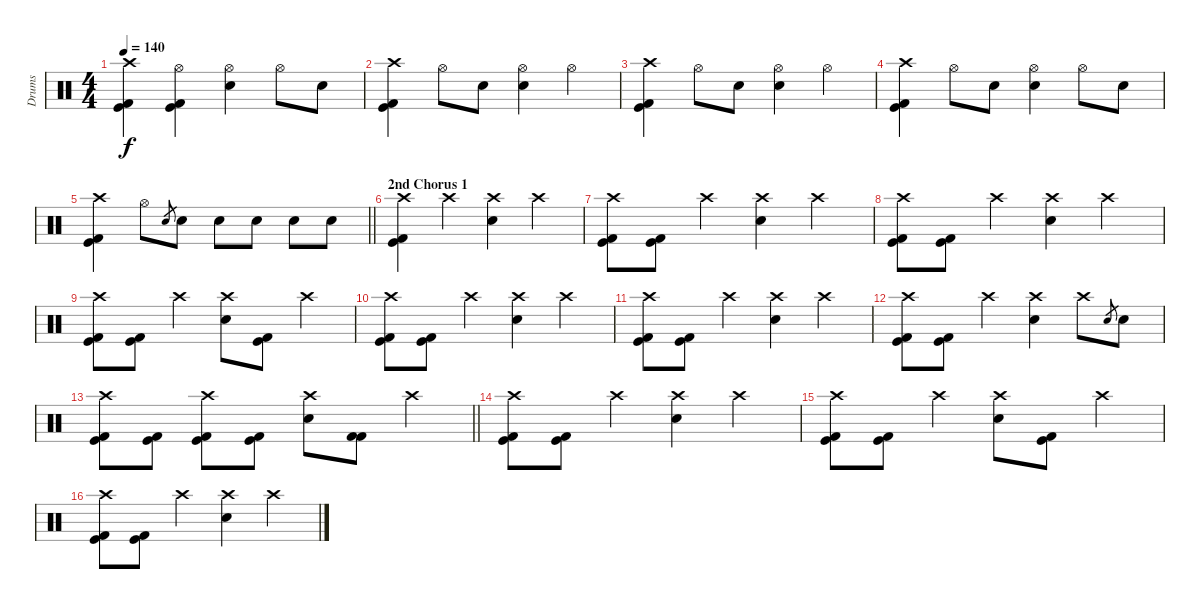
\track ("Drums" "Drums") {instrument percussion}
\staff {score}
\articulation defaults
\ts (4 4)
\tempo 140
\clef neutral
\ks c
("Crash high (hit)" "Kick (hit)" "Kick (hit) 2").4{dy f} ("Hi-Hat (open)" "Kick (hit) 2" "Kick (hit)").4 ("Hi-Hat (open)" "Snare (hit) 2").4 "Hi-Hat (open)".8 "Snare (hit) 2".8 |
("Kick (hit) 2" "Kick (hit)" "Crash high (hit)").4 "Hi-Hat (open)".8 "Snare (hit) 2".8 ("Snare (hit) 2" "Hi-Hat (open)").4 "Hi-Hat (open)".4 |
("Kick (hit) 2" "Kick (hit)" "Crash high (hit)").4 "Hi-Hat (open)".8 "Snare (hit) 2".8 ("Snare (hit) 2" "Hi-Hat (open)").4 "Hi-Hat (open)".4 |
("Kick (hit) 2" "Kick (hit)" "Crash high (hit)").4 "Hi-Hat (open)".8 "Snare (hit) 2".8 ("Snare (hit) 2" "Hi-Hat (open)").4 "Hi-Hat (open)".8 "Snare (hit) 2".8 |
\barLineRight lightlight
("Kick (hit) 2" "Kick (hit)" "Crash high (hit)").4 "Hi-Hat (open)".8 "Snare (hit) 2".8{gr} "Snare (hit) 2".8 "Snare (hit) 2".8 "Snare (hit) 2".8 "Snare (hit) 2".8 "Snare (hit) 2".8 |
\section ("" "2nd Chorus 1")
("Kick (hit)" "Kick (hit) 2" "Crash high (hit)").4 "Crash high (hit)".4 ("Snare (hit) 2" "Crash high (hit)").4 "Crash high (hit)".4 |
("Kick (hit)" "Kick (hit) 2" "Crash high (hit)").8 ("Kick (hit) 2" "Kick (hit)").8 "Crash high (hit)".4 ("Snare (hit) 2" "Crash high (hit)").4 "Crash high (hit)".4 |
("Kick (hit)" "Kick (hit) 2" "Crash high (hit)").8 ("Kick (hit) 2" "Kick (hit)").8 "Crash high (hit)".4 ("Snare (hit) 2" "Crash high (hit)").4 "Crash high (hit)".4 |
("Kick (hit)" "Kick (hit) 2" "Crash high (hit)").8 ("Kick (hit) 2" "Kick (hit)").8 "Crash high (hit)".4 ("Snare (hit) 2" "Crash high (hit)").8 ("Kick (hit) 2" "Kick (hit)").8 "Crash high (hit)".4 |
("Kick (hit)" "Kick (hit) 2" "Crash high (hit)").8 ("Kick (hit) 2" "Kick (hit)").8 "Crash high (hit)".4 ("Snare (hit) 2" "Crash high (hit)").4 "Crash high (hit)".4 |
("Kick (hit)" "Kick (hit) 2" "Crash high (hit)").8 ("Kick (hit) 2" "Kick (hit)").8 "Crash high (hit)".4 ("Snare (hit) 2" "Crash high (hit)").4 "Crash high (hit)".4 |
("Kick (hit)" "Kick (hit) 2" "Crash high (hit)").8 ("Kick (hit) 2" "Kick (hit)").8 "Crash high (hit)".4 ("Snare (hit) 2" "Crash high (hit)").4 "Crash high (hit)".8 "Snare (hit) 2".8{gr} "Snare (hit) 2".8 |
\barLineRight lightlight
("Kick (hit)" "Kick (hit) 2" "Crash high (hit)").8 ("Kick (hit) 2" "Kick (hit)").8 ("Crash high (hit)" "Kick (hit) 2" "Kick (hit)").8 ("Kick (hit)" "Kick (hit) 2").8 ("Snare (hit) 2" "Crash high (hit)").8 ("Kick (hit) 2" "Kick (hit) 2").8 "Crash high (hit)".4 |
("Kick (hit)" "Kick (hit) 2" "Crash high (hit)").8 ("Kick (hit) 2" "Kick (hit)").8 "Crash high (hit)".4 ("Snare (hit) 2" "Crash high (hit)").4 "Crash high (hit)".4 |
("Kick (hit)" "Kick (hit) 2" "Crash high (hit)").8 ("Kick (hit) 2" "Kick (hit)").8 "Crash high (hit)".4 ("Snare (hit) 2" "Crash high (hit)").8 ("Kick (hit) 2" "Kick (hit)").8 "Crash high (hit)".4 |
("Kick (hit)" "Kick (hit) 2" "Crash high (hit)").8 ("Kick (hit) 2" "Kick (hit)").8 "Crash high (hit)".4 ("Snare (hit) 2" "Crash high (hit)").4 "Crash high (hit)".4
